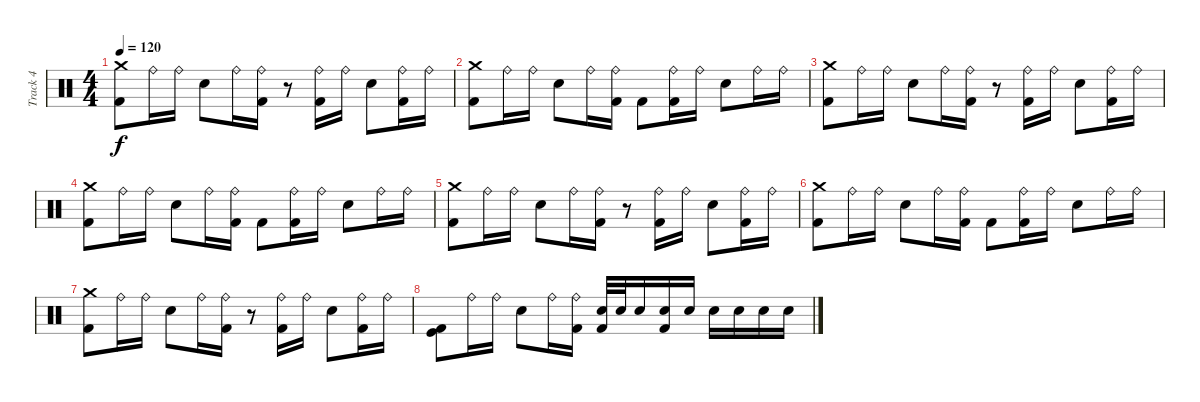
\track ("Track 4" "Track 4") {instrument percussion}
\staff {score}
\articulation defaults
\ts (4 4)
\tempo 120
\clef neutral
\ks c
("Crash medium (hit)" "Kick (hit) 2").8{dy f} "Ride (bell)".16 "Ride (bell)".16 "Electric Snare (hit)".8 "Ride (bell)".16 ("Ride (bell)" "Kick (hit) 2").16 r.8 ("Ride (bell)" "Kick (hit) 2").16 "Ride (bell)".16 "Electric Snare (hit)".8 ("Ride (bell)" "Kick (hit) 2").16 "Ride (bell)".16 |
("Crash medium (hit)" "Kick (hit) 2").8 "Ride (bell)".16 "Ride (bell)".16 "Electric Snare (hit)".8 "Ride (bell)".16 ("Ride (bell)" "Kick (hit) 2").16 "Kick (hit) 2".8 ("Ride (bell)" "Kick (hit) 2").16 "Ride (bell)".16 "Electric Snare (hit)".8 "Ride (bell)".16 "Ride (bell)".16 |
("Crash medium (hit)" "Kick (hit) 2").8 "Ride (bell)".16 "Ride (bell)".16 "Electric Snare (hit)".8 "Ride (bell)".16 ("Ride (bell)" "Kick (hit) 2").16 r.8 ("Ride (bell)" "Kick (hit) 2").16 "Ride (bell)".16 "Electric Snare (hit)".8 ("Ride (bell)" "Kick (hit) 2").16 "Ride (bell)".16 |
("Crash medium (hit)" "Kick (hit) 2").8 "Ride (bell)".16 "Ride (bell)".16 "Electric Snare (hit)".8 "Ride (bell)".16 ("Ride (bell)" "Kick (hit) 2").16 "Kick (hit) 2".8 ("Ride (bell)" "Kick (hit) 2").16 "Ride (bell)".16 "Electric Snare (hit)".8 "Ride (bell)".16 "Ride (bell)".16 |
("Crash medium (hit)" "Kick (hit) 2").8 "Ride (bell)".16 "Ride (bell)".16 "Electric Snare (hit)".8 "Ride (bell)".16 ("Ride (bell)" "Kick (hit) 2").16 r.8 ("Ride (bell)" "Kick (hit) 2").16 "Ride (bell)".16 "Electric Snare (hit)".8 ("Ride (bell)" "Kick (hit) 2").16 "Ride (bell)".16 |
("Crash medium (hit)" "Kick (hit) 2").8 "Ride (bell)".16 "Ride (bell)".16 "Electric Snare (hit)".8 "Ride (bell)".16 ("Ride (bell)" "Kick (hit) 2").16 "Kick (hit) 2".8 ("Ride (bell)" "Kick (hit) 2").16 "Ride (bell)".16 "Electric Snare (hit)".8 "Ride (bell)".16 "Ride (bell)".16 |
("Crash medium (hit)" "Kick (hit) 2").8 "Ride (bell)".16 "Ride (bell)".16 "Electric Snare (hit)".8 "Ride (bell)".16 ("Ride (bell)" "Kick (hit) 2").16 r.8 ("Ride (bell)" "Kick (hit) 2").16 "Ride (bell)".16 "Electric Snare (hit)".8 ("Ride (bell)" "Kick (hit) 2").16 "Ride (bell)".16 |
("Kick (hit)" "Kick (hit) 2").8 "Ride (bell)".16 "Ride (bell)".16 "Electric Snare (hit)".8 "Ride (bell)".16 ("Ride (bell)" "Kick (hit) 2").16 ("Electric Snare (hit)" "Kick (hit) 2").32 "Electric Snare (hit)".32 "Electric Snare (hit)".16 ("Electric Snare (hit)" "Kick (hit) 2").16 "Electric Snare (hit)".16 "Electric Snare (hit)".16 "Electric Snare (hit)".16 "Electric Snare (hit)".16 "Electric Snare (hit)".16
